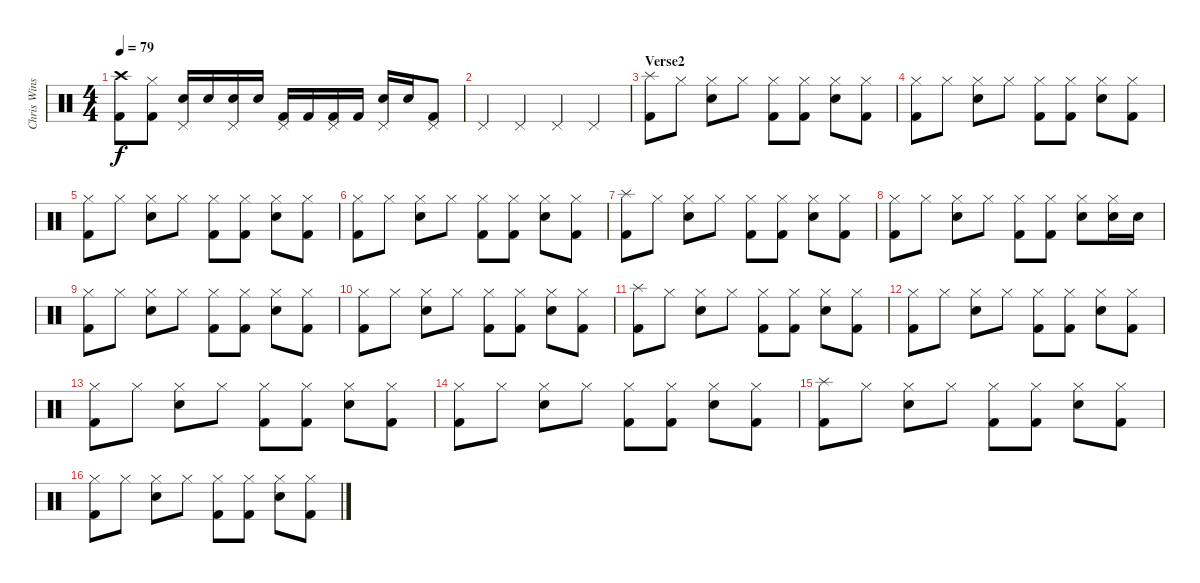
\track ("Chris Winship (Drums)" "Chris Wins") {instrument percussion}
\staff {score}
\articulation defaults
\ts (4 4)
\tempo 79
\clef neutral
\ks c
("Crash high (hit)" "Kick (hit) 2").8{dy f} ("Hi-Hat (closed)" "Kick (hit) 2").8 ("Pedal Hi-Hat (hit)" "Snare (hit) 2").16 "Snare (hit) 2".16 ("Pedal Hi-Hat (hit)" "Snare (hit) 2").16 "Snare (hit) 2".16 ("Pedal Hi-Hat (hit)" "Kick (hit) 2").16 "Kick (hit) 2".16 ("Pedal Hi-Hat (hit)" "Kick (hit) 2").16 "Kick (hit) 2".16 ("Pedal Hi-Hat (hit)" "Snare (hit) 2").16 "Snare (hit) 2".16 ("Pedal Hi-Hat (hit)" "Kick (hit) 2").8 |
"Pedal Hi-Hat (hit)".4 "Pedal Hi-Hat (hit)".4 "Pedal Hi-Hat (hit)".4 "Pedal Hi-Hat (hit)".4 |
\section ("" "Verse2")
("Splash (hit)" "Kick (hit) 2").8 "Hi-Hat (closed)".8 ("Hi-Hat (closed)" "Snare (hit) 2").8 "Hi-Hat (closed)".8 ("Hi-Hat (closed)" "Kick (hit) 2").8 ("Hi-Hat (closed)" "Kick (hit) 2").8 ("Hi-Hat (closed)" "Snare (hit) 2").8 ("Hi-Hat (closed)" "Kick (hit) 2").8 |
("Hi-Hat (closed)" "Kick (hit) 2").8 "Hi-Hat (closed)".8 ("Hi-Hat (closed)" "Snare (hit) 2").8 "Hi-Hat (closed)".8 ("Hi-Hat (closed)" "Kick (hit) 2").8 ("Hi-Hat (closed)" "Kick (hit) 2").8 ("Hi-Hat (closed)" "Snare (hit) 2").8 ("Hi-Hat (closed)" "Kick (hit) 2").8 |
("Hi-Hat (closed)" "Kick (hit) 2").8 "Hi-Hat (closed)".8 ("Hi-Hat (closed)" "Snare (hit) 2").8 "Hi-Hat (closed)".8 ("Hi-Hat (closed)" "Kick (hit) 2").8 ("Hi-Hat (closed)" "Kick (hit) 2").8 ("Hi-Hat (closed)" "Snare (hit) 2").8 ("Hi-Hat (closed)" "Kick (hit) 2").8 |
("Hi-Hat (closed)" "Kick (hit) 2").8 "Hi-Hat (closed)".8 ("Hi-Hat (closed)" "Snare (hit) 2").8 "Hi-Hat (closed)".8 ("Hi-Hat (closed)" "Kick (hit) 2").8 ("Hi-Hat (closed)" "Kick (hit) 2").8 ("Hi-Hat (closed)" "Snare (hit) 2").8 ("Hi-Hat (closed)" "Kick (hit) 2").8 |
("Splash (hit)" "Kick (hit) 2").8 "Hi-Hat (closed)".8 ("Hi-Hat (closed)" "Snare (hit) 2").8 "Hi-Hat (closed)".8 ("Hi-Hat (closed)" "Kick (hit) 2").8 ("Hi-Hat (closed)" "Kick (hit) 2").8 ("Hi-Hat (closed)" "Snare (hit) 2").8 ("Hi-Hat (closed)" "Kick (hit) 2").8 |
("Hi-Hat (closed)" "Kick (hit) 2").8 "Hi-Hat (closed)".8 ("Hi-Hat (closed)" "Snare (hit) 2").8 "Hi-Hat (closed)".8 ("Hi-Hat (closed)" "Kick (hit) 2").8 ("Hi-Hat (closed)" "Kick (hit) 2").8 ("Hi-Hat (closed)" "Snare (hit) 2").8 ("Hi-Hat (closed)" "Snare (hit) 2").16 "Snare (hit) 2".16 |
("Hi-Hat (closed)" "Kick (hit) 2").8 "Hi-Hat (closed)".8 ("Hi-Hat (closed)" "Snare (hit) 2").8 "Hi-Hat (closed)".8 ("Hi-Hat (closed)" "Kick (hit) 2").8 ("Hi-Hat (closed)" "Kick (hit) 2").8 ("Hi-Hat (closed)" "Snare (hit) 2").8 ("Hi-Hat (closed)" "Kick (hit) 2").8 |
("Hi-Hat (closed)" "Kick (hit) 2").8 "Hi-Hat (closed)".8 ("Hi-Hat (closed)" "Snare (hit) 2").8 "Hi-Hat (closed)".8 ("Hi-Hat (closed)" "Kick (hit) 2").8 ("Hi-Hat (closed)" "Kick (hit) 2").8 ("Hi-Hat (closed)" "Snare (hit) 2").8 ("Hi-Hat (closed)" "Kick (hit) 2").8 |
("Splash (hit)" "Kick (hit) 2").8 "Hi-Hat (closed)".8 ("Hi-Hat (closed)" "Snare (hit) 2").8 "Hi-Hat (closed)".8 ("Hi-Hat (closed)" "Kick (hit) 2").8 ("Hi-Hat (closed)" "Kick (hit) 2").8 ("Hi-Hat (closed)" "Snare (hit) 2").8 ("Hi-Hat (closed)" "Kick (hit) 2").8 |
("Hi-Hat (closed)" "Kick (hit) 2").8 "Hi-Hat (closed)".8 ("Hi-Hat (closed)" "Snare (hit) 2").8 "Hi-Hat (closed)".8 ("Hi-Hat (closed)" "Kick (hit) 2").8 ("Hi-Hat (closed)" "Kick (hit) 2").8 ("Hi-Hat (closed)" "Snare (hit) 2").8 ("Hi-Hat (closed)" "Kick (hit) 2").8 |
("Hi-Hat (closed)" "Kick (hit) 2").8 "Hi-Hat (closed)".8 ("Hi-Hat (closed)" "Snare (hit) 2").8 "Hi-Hat (closed)".8 ("Hi-Hat (closed)" "Kick (hit) 2").8 ("Hi-Hat (closed)" "Kick (hit) 2").8 ("Hi-Hat (closed)" "Snare (hit) 2").8 ("Hi-Hat (closed)" "Kick (hit) 2").8 |
("Hi-Hat (closed)" "Kick (hit) 2").8 "Hi-Hat (closed)".8 ("Hi-Hat (closed)" "Snare (hit) 2").8 "Hi-Hat (closed)".8 ("Hi-Hat (closed)" "Kick (hit) 2").8 ("Hi-Hat (closed)" "Kick (hit) 2").8 ("Hi-Hat (closed)" "Snare (hit) 2").8 ("Hi-Hat (closed)" "Kick (hit) 2").8 |
("Splash (hit)" "Kick (hit) 2").8 "Hi-Hat (closed)".8 ("Hi-Hat (closed)" "Snare (hit) 2").8 "Hi-Hat (closed)".8 ("Hi-Hat (closed)" "Kick (hit) 2").8 ("Hi-Hat (closed)" "Kick (hit) 2").8 ("Hi-Hat (closed)" "Snare (hit) 2").8 ("Hi-Hat (closed)" "Kick (hit) 2").8 |
("Hi-Hat (closed)" "Kick (hit) 2").8 "Hi-Hat (closed)".8 ("Hi-Hat (closed)" "Snare (hit) 2").8 "Hi-Hat (closed)".8 ("Hi-Hat (closed)" "Kick (hit) 2").8 ("Hi-Hat (closed)" "Kick (hit) 2").8 ("Hi-Hat (closed)" "Snare (hit) 2").8 ("Hi-Hat (closed)" "Kick (hit) 2").8
